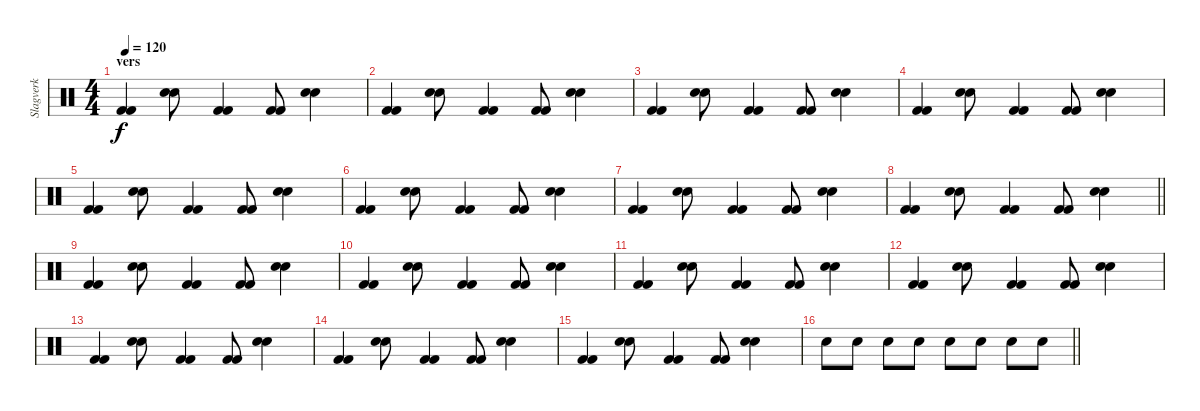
\track ("Slagverk" "Slagverk") {instrument percussion}
\staff {score}
\articulation defaults
\ts (4 4)
\section ("" "vers")
\tempo 120
\clef neutral
\ks c
("Kick (hit) 2" "Kick (hit) 2").4{dy f} ("Snare (hit) 2" "Snare (hit) 2").8 ("Kick (hit) 2" "Kick (hit) 2").4 ("Kick (hit) 2" "Kick (hit) 2").8 ("Snare (hit) 2" "Snare (hit) 2").4 |
("Kick (hit) 2" "Kick (hit) 2").4 ("Snare (hit) 2" "Snare (hit) 2").8 ("Kick (hit) 2" "Kick (hit) 2").4 ("Kick (hit) 2" "Kick (hit) 2").8 ("Snare (hit) 2" "Snare (hit) 2").4 |
("Kick (hit) 2" "Kick (hit) 2").4 ("Snare (hit) 2" "Snare (hit) 2").8 ("Kick (hit) 2" "Kick (hit) 2").4 ("Kick (hit) 2" "Kick (hit) 2").8 ("Snare (hit) 2" "Snare (hit) 2").4 |
("Kick (hit) 2" "Kick (hit) 2").4 ("Snare (hit) 2" "Snare (hit) 2").8 ("Kick (hit) 2" "Kick (hit) 2").4 ("Kick (hit) 2" "Kick (hit) 2").8 ("Snare (hit) 2" "Snare (hit) 2").4 |
("Kick (hit) 2" "Kick (hit) 2").4 ("Snare (hit) 2" "Snare (hit) 2").8 ("Kick (hit) 2" "Kick (hit) 2").4 ("Kick (hit) 2" "Kick (hit) 2").8 ("Snare (hit) 2" "Snare (hit) 2").4 |
("Kick (hit) 2" "Kick (hit) 2").4 ("Snare (hit) 2" "Snare (hit) 2").8 ("Kick (hit) 2" "Kick (hit) 2").4 ("Kick (hit) 2" "Kick (hit) 2").8 ("Snare (hit) 2" "Snare (hit) 2").4 |
("Kick (hit) 2" "Kick (hit) 2").4 ("Snare (hit) 2" "Snare (hit) 2").8 ("Kick (hit) 2" "Kick (hit) 2").4 ("Kick (hit) 2" "Kick (hit) 2").8 ("Snare (hit) 2" "Snare (hit) 2").4 |
\barLineRight lightlight
("Kick (hit) 2" "Kick (hit) 2").4 ("Snare (hit) 2" "Snare (hit) 2").8 ("Kick (hit) 2" "Kick (hit) 2").4 ("Kick (hit) 2" "Kick (hit) 2").8 ("Snare (hit) 2" "Snare (hit) 2").4 |
("Kick (hit) 2" "Kick (hit) 2").4 ("Snare (hit) 2" "Snare (hit) 2").8 ("Kick (hit) 2" "Kick (hit) 2").4 ("Kick (hit) 2" "Kick (hit) 2").8 ("Snare (hit) 2" "Snare (hit) 2").4 |
("Kick (hit) 2" "Kick (hit) 2").4 ("Snare (hit) 2" "Snare (hit) 2").8 ("Kick (hit) 2" "Kick (hit) 2").4 ("Kick (hit) 2" "Kick (hit) 2").8 ("Snare (hit) 2" "Snare (hit) 2").4 |
("Kick (hit) 2" "Kick (hit) 2").4 ("Snare (hit) 2" "Snare (hit) 2").8 ("Kick (hit) 2" "Kick (hit) 2").4 ("Kick (hit) 2" "Kick (hit) 2").8 ("Snare (hit) 2" "Snare (hit) 2").4 |
("Kick (hit) 2" "Kick (hit) 2").4 ("Snare (hit) 2" "Snare (hit) 2").8 ("Kick (hit) 2" "Kick (hit) 2").4 ("Kick (hit) 2" "Kick (hit) 2").8 ("Snare (hit) 2" "Snare (hit) 2").4 |
("Kick (hit) 2" "Kick (hit) 2").4 ("Snare (hit) 2" "Snare (hit) 2").8 ("Kick (hit) 2" "Kick (hit) 2").4 ("Kick (hit) 2" "Kick (hit) 2").8 ("Snare (hit) 2" "Snare (hit) 2").4 |
("Kick (hit) 2" "Kick (hit) 2").4 ("Snare (hit) 2" "Snare (hit) 2").8 ("Kick (hit) 2" "Kick (hit) 2").4 ("Kick (hit) 2" "Kick (hit) 2").8 ("Snare (hit) 2" "Snare (hit) 2").4 |
("Kick (hit) 2" "Kick (hit) 2").4 ("Snare (hit) 2" "Snare (hit) 2").8 ("Kick (hit) 2" "Kick (hit) 2").4 ("Kick (hit) 2" "Kick (hit) 2").8 ("Snare (hit) 2" "Snare (hit) 2").4 |
\barLineRight lightlight "Snare (hit) 2".8 "Snare (hit) 2".8 "Snare (hit) 2".8 "Snare (hit) 2".8 "Snare (hit) 2".8 "Snare (hit) 2".8 "Snare (hit) 2".8 "Snare (hit) 2".8
